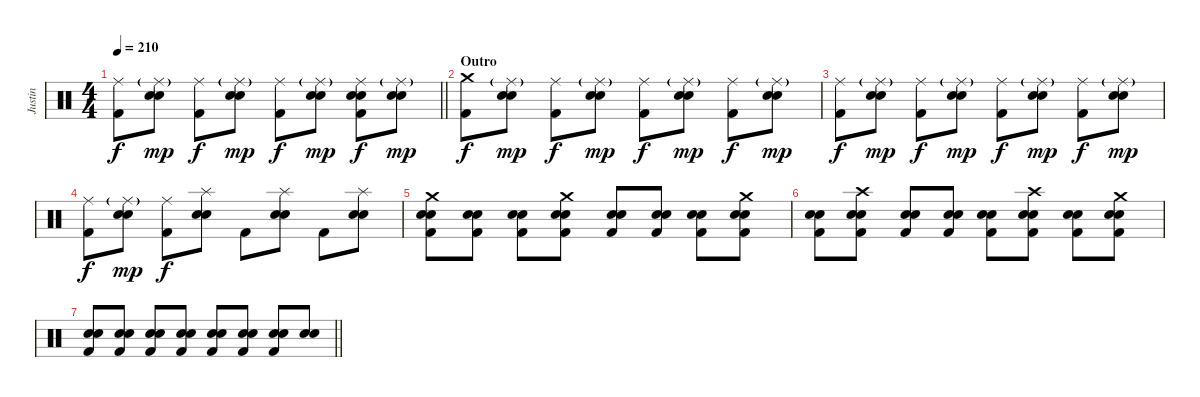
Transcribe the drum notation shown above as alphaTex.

\track ("Justin" "Justin") {instrument percussion}
\staff {score}
\articulation defaults
\ts (4 4)
\tempo 210
\clef neutral
\barLineRight lightlight
\ks c
("Ride (middle)" "Kick (hit) 2").8{dy f} ("Ride (middle)"{g} "Electric Snare (hit)" "Snare (hit) 2").8{dy mp} ("Ride (middle)" "Kick (hit) 2").8{dy f} ("Ride (middle)"{g} "Electric Snare (hit)" "Snare (hit) 2").8{dy mp} ("Ride (middle)" "Kick (hit) 2").8{dy f} ("Ride (middle)"{g} "Electric Snare (hit)" "Snare (hit) 2").8{dy mp} ("Ride (middle)" "Electric Snare (hit)" "Snare (hit) 2" "Kick (hit) 2").8{dy f} ("Ride (middle)"{g} "Electric Snare (hit)" "Snare (hit) 2").8{dy mp} |
\section ("" "Outro")
("Crash medium (hit)" "Kick (hit) 2").8{dy f} ("Ride (middle)"{g} "Electric Snare (hit)" "Snare (hit) 2").8{dy mp} ("Ride (middle)" "Kick (hit) 2").8{dy f} ("Ride (middle)"{g} "Electric Snare (hit)" "Snare (hit) 2").8{dy mp} ("Ride (middle)" "Kick (hit) 2").8{dy f} ("Ride (middle)"{g} "Electric Snare (hit)" "Snare (hit) 2").8{dy mp} ("Ride (middle)" "Kick (hit) 2").8{dy f} ("Ride (middle)"{g} "Electric Snare (hit)" "Snare (hit) 2").8{dy mp} |
("Ride (middle)" "Kick (hit) 2").8{dy f} ("Ride (middle)"{g} "Electric Snare (hit)" "Snare (hit) 2").8{dy mp} ("Ride (middle)" "Kick (hit) 2").8{dy f} ("Ride (middle)"{g} "Electric Snare (hit)" "Snare (hit) 2").8{dy mp} ("Ride (middle)" "Kick (hit) 2").8{dy f} ("Ride (middle)"{g} "Electric Snare (hit)" "Snare (hit) 2").8{dy mp} ("Ride (middle)" "Kick (hit) 2").8{dy f} ("Ride (middle)"{g} "Electric Snare (hit)" "Snare (hit) 2").8{dy mp} |
("Ride (middle)" "Kick (hit) 2").8{dy f} ("Ride (middle)"{g} "Electric Snare (hit)" "Snare (hit) 2").8{dy mp} ("Ride (middle)" "Kick (hit) 2").8{dy f} ("Splash (hit)" "Electric Snare (hit)" "Snare (hit) 2").8 "Kick (hit) 2".8 ("Splash (hit)" "Electric Snare (hit)" "Snare (hit) 2").8 "Kick (hit) 2".8 ("Splash (hit)" "Electric Snare (hit)" "Snare (hit) 2").8 |
("Crash medium (hit)" "Electric Snare (hit)" "Snare (hit) 2" "Kick (hit) 2").8 ("Electric Snare (hit)" "Snare (hit) 2" "Kick (hit) 2").8 ("Electric Snare (hit)" "Snare (hit) 2" "Kick (hit) 2").8 ("Crash medium (hit)" "Electric Snare (hit)" "Snare (hit) 2" "Kick (hit) 2").8 ("Electric Snare (hit)" "Snare (hit) 2" "Kick (hit) 2").8 ("Electric Snare (hit)" "Snare (hit) 2" "Kick (hit) 2").8 ("Electric Snare (hit)" "Snare (hit) 2" "Kick (hit) 2").8 ("Crash medium (hit)" "Electric Snare (hit)" "Snare (hit) 2" "Kick (hit) 2").8 |
("Electric Snare (hit)" "Snare (hit) 2" "Kick (hit) 2").8 ("Crash high (hit)" "Electric Snare (hit)" "Snare (hit) 2" "Kick (hit) 2").8 ("Electric Snare (hit)" "Snare (hit) 2" "Kick (hit) 2").8 ("Electric Snare (hit)" "Snare (hit) 2" "Kick (hit) 2").8 ("Electric Snare (hit)" "Snare (hit) 2" "Kick (hit) 2").8 ("Crash high (hit)" "Electric Snare (hit)" "Snare (hit) 2" "Kick (hit) 2").8 ("Electric Snare (hit)" "Snare (hit) 2" "Kick (hit) 2").8 ("Crash medium (hit)" "Electric Snare (hit)" "Snare (hit) 2" "Kick (hit) 2").8 |
\barLineRight lightlight
("Electric Snare (hit)" "Snare (hit) 2" "Kick (hit) 2").8 ("Electric Snare (hit)" "Snare (hit) 2" "Kick (hit) 2").8 ("Electric Snare (hit)" "Snare (hit) 2" "Kick (hit) 2").8 ("Electric Snare (hit)" "Snare (hit) 2" "Kick (hit) 2").8 ("Electric Snare (hit)" "Snare (hit) 2" "Kick (hit) 2").8 ("Electric Snare (hit)" "Snare (hit) 2" "Kick (hit) 2").8 ("Electric Snare (hit)" "Snare (hit) 2" "Kick (hit) 2").8 ("Electric Snare (hit)" "Snare (hit) 2").8
